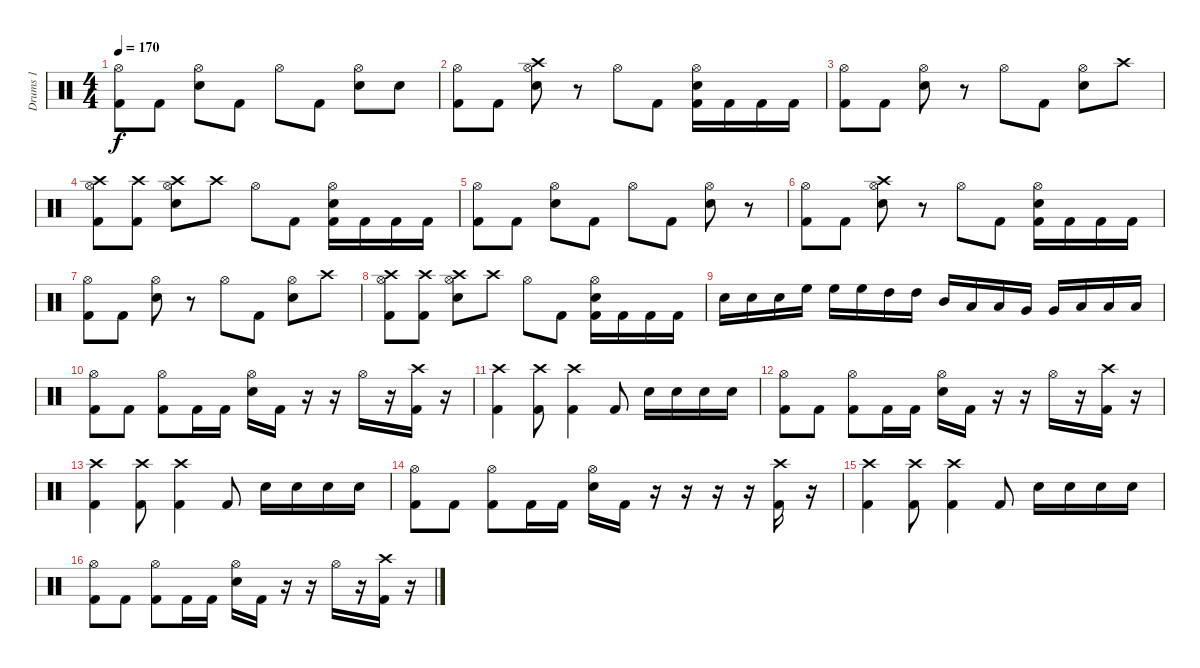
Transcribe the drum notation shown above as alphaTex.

\track ("Drums 1" "Drums 1") {instrument percussion}
\staff {score}
\articulation defaults
\ts (4 4)
\tempo 170
\clef neutral
\ks c
("Hi-Hat (open)" "Kick (hit) 2").8{dy f} "Kick (hit) 2".8 ("Hi-Hat (open)" "Electric Snare (hit)").8 "Kick (hit) 2".8 "Hi-Hat (open)".8 "Kick (hit) 2".8 ("Hi-Hat (open)" "Electric Snare (hit)").8 "Electric Snare (hit)".8 |
("Hi-Hat (open)" "Kick (hit) 2").8 "Kick (hit) 2".8 ("Crash high (hit)" "Hi-Hat (open)" "Electric Snare (hit)").8 r.8 "Hi-Hat (open)".8 "Kick (hit) 2".8 ("Hi-Hat (open)" "Electric Snare (hit)" "Kick (hit) 2").16 "Kick (hit) 2".16 "Kick (hit) 2".16 "Kick (hit) 2".16 |
("Hi-Hat (open)" "Kick (hit) 2").8 "Kick (hit) 2".8 ("Hi-Hat (open)" "Electric Snare (hit)").8 r.8 "Hi-Hat (open)".8 "Kick (hit) 2".8 ("Hi-Hat (open)" "Electric Snare (hit)").8 "Crash high (hit)".8 |
("Crash high (hit)" "Hi-Hat (open)" "Kick (hit) 2").8 ("Crash high (hit)" "Kick (hit) 2").8 ("Crash high (hit)" "Hi-Hat (open)" "Electric Snare (hit)").8 "Crash high (hit)".8 "Hi-Hat (open)".8 "Kick (hit) 2".8 ("Hi-Hat (open)" "Electric Snare (hit)" "Kick (hit) 2").16 "Kick (hit) 2".16 "Kick (hit) 2".16 "Kick (hit) 2".16 |
("Hi-Hat (open)" "Kick (hit) 2").8 "Kick (hit) 2".8 ("Hi-Hat (open)" "Electric Snare (hit)").8 "Kick (hit) 2".8 "Hi-Hat (open)".8 "Kick (hit) 2".8 ("Hi-Hat (open)" "Electric Snare (hit)").8 r.8 |
("Hi-Hat (open)" "Kick (hit) 2").8 "Kick (hit) 2".8 ("Crash high (hit)" "Hi-Hat (open)" "Electric Snare (hit)").8 r.8 "Hi-Hat (open)".8 "Kick (hit) 2".8 ("Hi-Hat (open)" "Electric Snare (hit)" "Kick (hit) 2").16 "Kick (hit) 2".16 "Kick (hit) 2".16 "Kick (hit) 2".16 |
("Hi-Hat (open)" "Kick (hit) 2").8 "Kick (hit) 2".8 ("Hi-Hat (open)" "Electric Snare (hit)").8 r.8 "Hi-Hat (open)".8 "Kick (hit) 2".8 ("Hi-Hat (open)" "Electric Snare (hit)").8 "Crash high (hit)".8 |
("Crash high (hit)" "Hi-Hat (open)" "Kick (hit) 2").8 ("Crash high (hit)" "Kick (hit) 2").8 ("Crash high (hit)" "Hi-Hat (open)" "Electric Snare (hit)").8 "Crash high (hit)".8 "Hi-Hat (open)".8 "Kick (hit) 2".8 ("Hi-Hat (open)" "Electric Snare (hit)" "Kick (hit) 2").16 "Kick (hit) 2".16 "Kick (hit) 2".16 "Kick (hit) 2".16 |
"Electric Snare (hit)".16 "Electric Snare (hit)".16 "Electric Snare (hit)".16 "High Floor Tom (hit)".16 "High Floor Tom (hit)".16 "High Floor Tom (hit)".16 "High Tom (hit)".16 "High Tom (hit)".16 "Mid Tom (hit)".16 "Low Tom (hit)".16 "Low Tom (hit)".16 "Very Low Tom (hit)".16 "Very Low Tom (hit)".16 "Low Floor Tom (hit)".16 "Low Floor Tom (hit)".16 "Low Floor Tom (hit)".16 |
("Hi-Hat (open)" "Kick (hit) 2").8 "Kick (hit) 2".8 ("Hi-Hat (open)" "Kick (hit) 2").8 "Kick (hit) 2".16 "Kick (hit) 2".16 ("Hi-Hat (open)" "Electric Snare (hit)").16 "Kick (hit) 2".16 r.16 r.16 "Hi-Hat (open)".16 r.16 ("Crash high (hit)" "Kick (hit) 2").16 r.16 |
("Crash high (hit)" "Kick (hit) 2").4 ("Crash high (hit)" "Kick (hit) 2").8 ("Crash high (hit)" "Kick (hit) 2").4 "Kick (hit) 2".8 "Electric Snare (hit)".16 "Electric Snare (hit)".16 "Electric Snare (hit)".16 "Electric Snare (hit)".16 |
("Hi-Hat (open)" "Kick (hit) 2").8 "Kick (hit) 2".8 ("Hi-Hat (open)" "Kick (hit) 2").8 "Kick (hit) 2".16 "Kick (hit) 2".16 ("Hi-Hat (open)" "Electric Snare (hit)").16 "Kick (hit) 2".16 r.16 r.16 "Hi-Hat (open)".16 r.16 ("Crash high (hit)" "Kick (hit) 2").16 r.16 |
("Crash high (hit)" "Kick (hit) 2").4 ("Crash high (hit)" "Kick (hit) 2").8 ("Crash high (hit)" "Kick (hit) 2").4 "Kick (hit) 2".8 "Electric Snare (hit)".16 "Electric Snare (hit)".16 "Electric Snare (hit)".16 "Electric Snare (hit)".16 |
("Hi-Hat (open)" "Kick (hit) 2").8 "Kick (hit) 2".8 ("Hi-Hat (open)" "Kick (hit) 2").8 "Kick (hit) 2".16 "Kick (hit) 2".16 ("Hi-Hat (open)" "Electric Snare (hit)").16 "Kick (hit) 2".16 r.16 r.16 r.16 r.16 ("Crash high (hit)" "Kick (hit) 2").16 r.16 |
("Crash high (hit)" "Kick (hit) 2").4 ("Crash high (hit)" "Kick (hit) 2").8 ("Crash high (hit)" "Kick (hit) 2").4 "Kick (hit) 2".8 "Electric Snare (hit)".16 "Electric Snare (hit)".16 "Electric Snare (hit)".16 "Electric Snare (hit)".16 |
("Hi-Hat (open)" "Kick (hit) 2").8 "Kick (hit) 2".8 ("Hi-Hat (open)" "Kick (hit) 2").8 "Kick (hit) 2".16 "Kick (hit) 2".16 ("Hi-Hat (open)" "Electric Snare (hit)").16 "Kick (hit) 2".16 r.16 r.16 "Hi-Hat (open)".16 r.16 ("Crash high (hit)" "Kick (hit) 2").16 r.16
